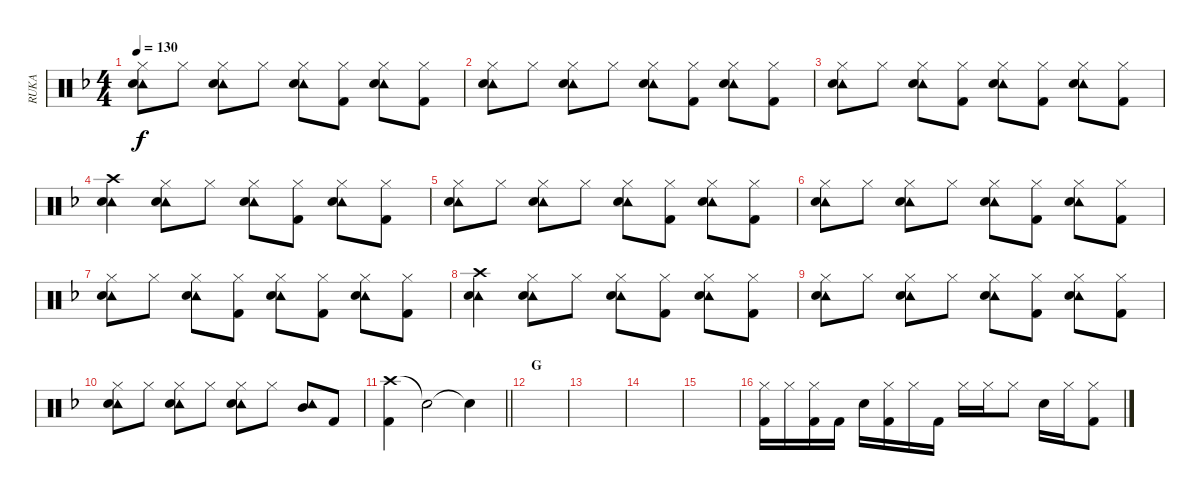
\track ("RUKA" "RUKA") {instrument percussion}
\staff {score}
\articulation defaults
\ts (4 4)
\tempo 130
\clef neutral
\ks f
("Hi-Hat (closed)" "Tambourine (hit)" "Snare (hit) 2").8{dy f} "Hi-Hat (closed)".8 ("Hi-Hat (closed)" "Tambourine (hit)" "Snare (hit) 2").8 "Hi-Hat (closed)".8 ("Hi-Hat (closed)" "Tambourine (hit)" "Snare (hit) 2").8 ("Hi-Hat (closed)" "Kick (hit) 2").8 ("Hi-Hat (closed)" "Tambourine (hit)" "Snare (hit) 2").8 ("Hi-Hat (closed)" "Kick (hit) 2").8 |
("Hi-Hat (closed)" "Tambourine (hit)" "Snare (hit) 2").8 "Hi-Hat (closed)".8 ("Hi-Hat (closed)" "Tambourine (hit)" "Snare (hit) 2").8 "Hi-Hat (closed)".8 ("Hi-Hat (closed)" "Tambourine (hit)" "Snare (hit) 2").8 ("Hi-Hat (closed)" "Kick (hit) 2").8 ("Hi-Hat (closed)" "Tambourine (hit)" "Snare (hit) 2").8 ("Hi-Hat (closed)" "Kick (hit) 2").8 |
("Hi-Hat (closed)" "Tambourine (hit)" "Snare (hit) 2").8 "Hi-Hat (closed)".8 ("Hi-Hat (closed)" "Tambourine (hit)" "Snare (hit) 2").8 ("Hi-Hat (closed)" "Kick (hit) 2").8 ("Hi-Hat (closed)" "Tambourine (hit)" "Snare (hit) 2").8 ("Hi-Hat (closed)" "Kick (hit) 2").8 ("Hi-Hat (closed)" "Tambourine (hit)" "Snare (hit) 2").8 ("Hi-Hat (closed)" "Kick (hit) 2").8 |
("Crash high (hit)" "Tambourine (hit)" "Snare (hit) 2").4 ("Hi-Hat (closed)" "Tambourine (hit)" "Snare (hit) 2").8 "Hi-Hat (closed)".8 ("Hi-Hat (closed)" "Tambourine (hit)" "Snare (hit) 2").8 ("Hi-Hat (closed)" "Kick (hit) 2").8 ("Hi-Hat (closed)" "Tambourine (hit)" "Snare (hit) 2").8 ("Hi-Hat (closed)" "Kick (hit) 2").8 |
("Hi-Hat (closed)" "Tambourine (hit)" "Snare (hit) 2").8 "Hi-Hat (closed)".8 ("Hi-Hat (closed)" "Tambourine (hit)" "Snare (hit) 2").8 "Hi-Hat (closed)".8 ("Hi-Hat (closed)" "Tambourine (hit)" "Snare (hit) 2").8 ("Hi-Hat (closed)" "Kick (hit) 2").8 ("Hi-Hat (closed)" "Tambourine (hit)" "Snare (hit) 2").8 ("Hi-Hat (closed)" "Kick (hit) 2").8 |
("Hi-Hat (closed)" "Tambourine (hit)" "Snare (hit) 2").8 "Hi-Hat (closed)".8 ("Hi-Hat (closed)" "Tambourine (hit)" "Snare (hit) 2").8 "Hi-Hat (closed)".8 ("Hi-Hat (closed)" "Tambourine (hit)" "Snare (hit) 2").8 ("Hi-Hat (closed)" "Kick (hit) 2").8 ("Hi-Hat (closed)" "Tambourine (hit)" "Snare (hit) 2").8 ("Hi-Hat (closed)" "Kick (hit) 2").8 |
("Hi-Hat (closed)" "Tambourine (hit)" "Snare (hit) 2").8 "Hi-Hat (closed)".8 ("Hi-Hat (closed)" "Tambourine (hit)" "Snare (hit) 2").8 ("Hi-Hat (closed)" "Kick (hit) 2").8 ("Hi-Hat (closed)" "Tambourine (hit)" "Snare (hit) 2").8 ("Hi-Hat (closed)" "Kick (hit) 2").8 ("Hi-Hat (closed)" "Tambourine (hit)" "Snare (hit) 2").8 ("Hi-Hat (closed)" "Kick (hit) 2").8 |
("Crash high (hit)" "Tambourine (hit)" "Snare (hit) 2").4 ("Hi-Hat (closed)" "Tambourine (hit)" "Snare (hit) 2").8 "Hi-Hat (closed)".8 ("Hi-Hat (closed)" "Tambourine (hit)" "Snare (hit) 2").8 ("Hi-Hat (closed)" "Kick (hit) 2").8 ("Hi-Hat (closed)" "Tambourine (hit)" "Snare (hit) 2").8 ("Hi-Hat (closed)" "Kick (hit) 2").8 |
("Hi-Hat (closed)" "Tambourine (hit)" "Snare (hit) 2").8 "Hi-Hat (closed)".8 ("Hi-Hat (closed)" "Tambourine (hit)" "Snare (hit) 2").8 "Hi-Hat (closed)".8 ("Hi-Hat (closed)" "Tambourine (hit)" "Snare (hit) 2").8 ("Hi-Hat (closed)" "Kick (hit) 2").8 ("Hi-Hat (closed)" "Tambourine (hit)" "Snare (hit) 2").8 ("Hi-Hat (closed)" "Kick (hit) 2").8 |
("Hi-Hat (closed)" "Tambourine (hit)" "Snare (hit) 2").8 "Hi-Hat (closed)".8 ("Hi-Hat (closed)" "Tambourine (hit)" "Snare (hit) 2").8 "Hi-Hat (closed)".8 ("Hi-Hat (closed)" "Tambourine (hit)" "Snare (hit) 2").8 "Hi-Hat (closed)".8 ("Tambourine (hit)" "Mid Tom (hit)").8 "Kick (hit) 2".8 |
\barLineRight lightlight
("Crash high (hit)" "Kick (hit) 2").4 "Snare (hit)"{t}.2 "Snare (hit)"{t}.4 |
\section ("" "G")
|
|
|
|
("Hi-Hat (closed)" "Kick (hit) 2").16 "Hi-Hat (closed)".16 ("Hi-Hat (closed)" "Kick (hit) 2").16 "Kick (hit) 2".16 "Snare (hit) 2".16 ("Hi-Hat (closed)" "Kick (hit) 2").16 "Hi-Hat (closed)".16 "Kick (hit) 2".16 "Hi-Hat (closed)".16 "Hi-Hat (closed)".16 "Hi-Hat (closed)".8 "Snare (hit) 2".16 "Hi-Hat (closed)".16 ("Hi-Hat (closed)" "Kick (hit) 2").8
